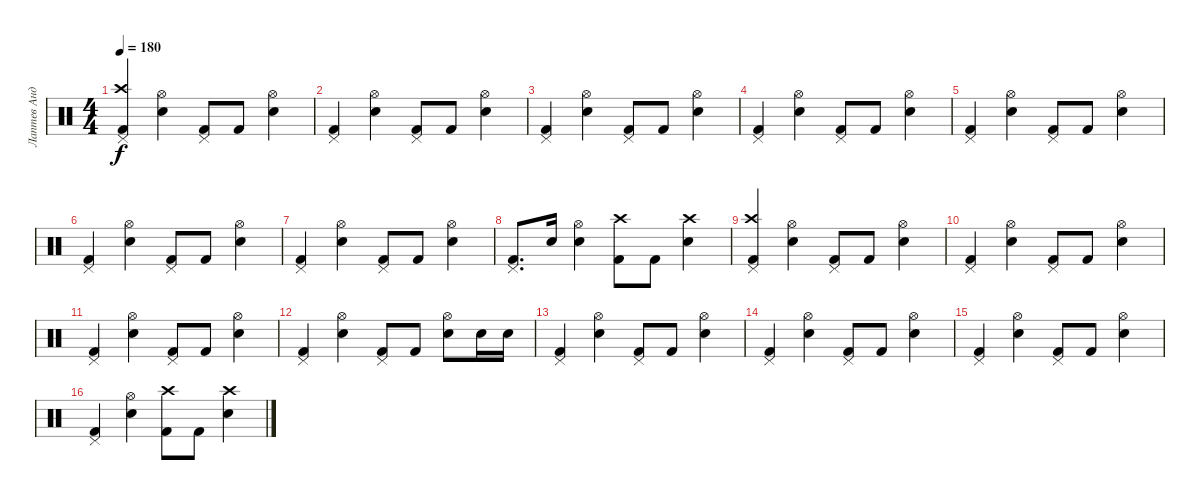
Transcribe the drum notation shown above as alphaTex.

\track ("Лаптев Андрей" "Лаптев Анд") {instrument percussion}
\staff {score}
\articulation defaults
\ts (4 4)
\tempo 180
\clef neutral
\ks c
("Kick (hit) 2" "Crash high (hit)" "Pedal Hi-Hat (hit)").4{dy f} ("Snare (hit) 2" "Hi-Hat (open)").4 ("Kick (hit) 2" "Pedal Hi-Hat (hit)").8 "Kick (hit) 2".8 ("Snare (hit) 2" "Hi-Hat (open)").4 |
("Kick (hit) 2" "Pedal Hi-Hat (hit)").4 ("Snare (hit) 2" "Hi-Hat (open)").4 ("Kick (hit) 2" "Pedal Hi-Hat (hit)").8 "Kick (hit) 2".8 ("Snare (hit) 2" "Hi-Hat (open)").4 |
("Kick (hit) 2" "Pedal Hi-Hat (hit)").4 ("Snare (hit) 2" "Hi-Hat (open)").4 ("Kick (hit) 2" "Pedal Hi-Hat (hit)").8 "Kick (hit) 2".8 ("Snare (hit) 2" "Hi-Hat (open)").4 |
("Kick (hit) 2" "Pedal Hi-Hat (hit)").4 ("Snare (hit) 2" "Hi-Hat (open)").4 ("Kick (hit) 2" "Pedal Hi-Hat (hit)").8 "Kick (hit) 2".8 ("Snare (hit) 2" "Hi-Hat (open)").4 |
("Kick (hit) 2" "Pedal Hi-Hat (hit)").4 ("Snare (hit) 2" "Hi-Hat (open)").4 ("Kick (hit) 2" "Pedal Hi-Hat (hit)").8 "Kick (hit) 2".8 ("Snare (hit) 2" "Hi-Hat (open)").4 |
("Kick (hit) 2" "Pedal Hi-Hat (hit)").4 ("Snare (hit) 2" "Hi-Hat (open)").4 ("Kick (hit) 2" "Pedal Hi-Hat (hit)").8 "Kick (hit) 2".8 ("Snare (hit) 2" "Hi-Hat (open)").4 |
("Kick (hit) 2" "Pedal Hi-Hat (hit)").4 ("Snare (hit) 2" "Hi-Hat (open)").4 ("Kick (hit) 2" "Pedal Hi-Hat (hit)").8 "Kick (hit) 2".8 ("Snare (hit) 2" "Hi-Hat (open)").4 |
("Kick (hit) 2" "Pedal Hi-Hat (hit)").8{d} "Snare (hit) 2".16 ("Snare (hit) 2" "Hi-Hat (open)").4 ("Kick (hit) 2" "Crash high (hit)").8 "Kick (hit) 2".8 ("Snare (hit) 2" "Crash high (hit)").4 |
("Kick (hit) 2" "Crash high (hit)" "Pedal Hi-Hat (hit)").4 ("Snare (hit) 2" "Hi-Hat (open)").4 ("Kick (hit) 2" "Pedal Hi-Hat (hit)").8 "Kick (hit) 2".8 ("Snare (hit) 2" "Hi-Hat (open)").4 |
("Kick (hit) 2" "Pedal Hi-Hat (hit)").4 ("Snare (hit) 2" "Hi-Hat (open)").4 ("Kick (hit) 2" "Pedal Hi-Hat (hit)").8 "Kick (hit) 2".8 ("Snare (hit) 2" "Hi-Hat (open)").4 |
("Kick (hit) 2" "Pedal Hi-Hat (hit)").4 ("Snare (hit) 2" "Hi-Hat (open)").4 ("Kick (hit) 2" "Pedal Hi-Hat (hit)").8 "Kick (hit) 2".8 ("Snare (hit) 2" "Hi-Hat (open)").4 |
("Kick (hit) 2" "Pedal Hi-Hat (hit)").4 ("Snare (hit) 2" "Hi-Hat (open)").4 ("Kick (hit) 2" "Pedal Hi-Hat (hit)").8 "Kick (hit) 2".8 ("Snare (hit) 2" "Hi-Hat (open)").8 "Snare (hit) 2".16 "Snare (hit) 2".16 |
("Kick (hit) 2" "Pedal Hi-Hat (hit)").4 ("Snare (hit) 2" "Hi-Hat (open)").4 ("Kick (hit) 2" "Pedal Hi-Hat (hit)").8 "Kick (hit) 2".8 ("Snare (hit) 2" "Hi-Hat (open)").4 |
("Kick (hit) 2" "Pedal Hi-Hat (hit)").4 ("Snare (hit) 2" "Hi-Hat (open)").4 ("Kick (hit) 2" "Pedal Hi-Hat (hit)").8 "Kick (hit) 2".8 ("Snare (hit) 2" "Hi-Hat (open)").4 |
("Kick (hit) 2" "Pedal Hi-Hat (hit)").4 ("Snare (hit) 2" "Hi-Hat (open)").4 ("Kick (hit) 2" "Pedal Hi-Hat (hit)").8 "Kick (hit) 2".8 ("Snare (hit) 2" "Hi-Hat (open)").4 |
("Kick (hit) 2" "Pedal Hi-Hat (hit)").4 ("Snare (hit) 2" "Hi-Hat (open)").4 ("Kick (hit) 2" "Crash high (hit)").8 "Kick (hit) 2".8 ("Snare (hit) 2" "Crash high (hit)").4
